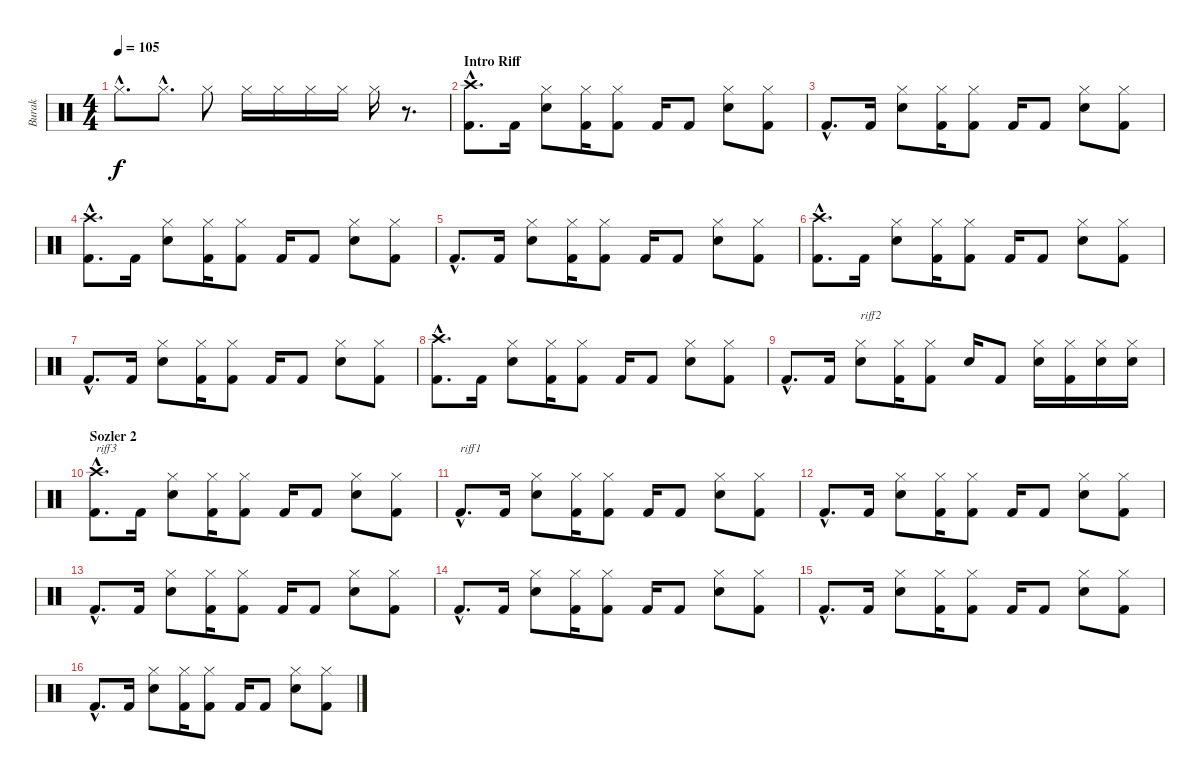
\track ("Burak" "Burak") {instrument percussion}
\staff {score}
\articulation defaults
\ts (4 4)
\tempo 105
\clef neutral
\ks c "Hi-Hat (closed)"{hac}.8{d dy f volume 6} "Hi-Hat (closed)"{hac}.8{d volume 10} "Hi-Hat (closed)".8 "Hi-Hat (closed)".16{volume 12} "Hi-Hat (closed)".16 "Hi-Hat (closed)".16{volume 13} "Hi-Hat (closed)".16 "Hi-Hat (closed)".16{volume 16}
r.8{d} |
\section ("" "Intro Riff")
("Kick (hit) 2"{hac} "Crash high (hit)"{hac}).8{d} "Kick (hit) 2".16 ("Electric Snare (hit)" "Hi-Hat (closed)").8 ("Kick (hit) 2" "Hi-Hat (closed)").16 ("Kick (hit) 2" "Hi-Hat (closed)").8 "Kick (hit) 2".16 "Kick (hit) 2".8 ("Electric Snare (hit)" "Hi-Hat (closed)").8 ("Kick (hit) 2" "Hi-Hat (closed)").8 |
"Kick (hit) 2"{hac}.8{d} "Kick (hit) 2".16 ("Electric Snare (hit)" "Hi-Hat (closed)").8 ("Kick (hit) 2" "Hi-Hat (closed)").16 ("Kick (hit) 2" "Hi-Hat (closed)").8 "Kick (hit) 2".16 "Kick (hit) 2".8 ("Electric Snare (hit)" "Hi-Hat (closed)").8 ("Kick (hit) 2" "Hi-Hat (closed)").8 |
("Kick (hit) 2"{hac} "Crash high (hit)"{hac}).8{d} "Kick (hit) 2".16 ("Electric Snare (hit)" "Hi-Hat (closed)").8 ("Kick (hit) 2" "Hi-Hat (closed)").16 ("Kick (hit) 2" "Hi-Hat (closed)").8 "Kick (hit) 2".16 "Kick (hit) 2".8 ("Electric Snare (hit)" "Hi-Hat (closed)").8 ("Kick (hit) 2" "Hi-Hat (closed)").8 |
"Kick (hit) 2"{hac}.8{d} "Kick (hit) 2".16 ("Electric Snare (hit)" "Hi-Hat (closed)").8 ("Kick (hit) 2" "Hi-Hat (closed)").16 ("Kick (hit) 2" "Hi-Hat (closed)").8 "Kick (hit) 2".16 "Kick (hit) 2".8 ("Electric Snare (hit)" "Hi-Hat (closed)").8 ("Kick (hit) 2" "Hi-Hat (closed)").8 |
("Kick (hit) 2"{hac} "Crash high (hit)"{hac}).8{d} "Kick (hit) 2".16 ("Electric Snare (hit)" "Hi-Hat (closed)").8 ("Kick (hit) 2" "Hi-Hat (closed)").16 ("Kick (hit) 2" "Hi-Hat (closed)").8 "Kick (hit) 2".16 "Kick (hit) 2".8 ("Electric Snare (hit)" "Hi-Hat (closed)").8 ("Kick (hit) 2" "Hi-Hat (closed)").8 |
"Kick (hit) 2"{hac}.8{d} "Kick (hit) 2".16 ("Electric Snare (hit)" "Hi-Hat (closed)").8 ("Kick (hit) 2" "Hi-Hat (closed)").16 ("Kick (hit) 2" "Hi-Hat (closed)").8 "Kick (hit) 2".16 "Kick (hit) 2".8 ("Electric Snare (hit)" "Hi-Hat (closed)").8 ("Kick (hit) 2" "Hi-Hat (closed)").8 |
("Kick (hit) 2"{hac} "Crash high (hit)"{hac}).8{d} "Kick (hit) 2".16 ("Electric Snare (hit)" "Hi-Hat (closed)").8 ("Kick (hit) 2" "Hi-Hat (closed)").16 ("Kick (hit) 2" "Hi-Hat (closed)").8 "Kick (hit) 2".16 "Kick (hit) 2".8 ("Electric Snare (hit)" "Hi-Hat (closed)").8 ("Kick (hit) 2" "Hi-Hat (closed)").8 |
"Kick (hit) 2"{hac}.8{d} "Kick (hit) 2".16 ("Electric Snare (hit)" "Hi-Hat (closed)").8{txt "riff2"} ("Kick (hit) 2" "Hi-Hat (closed)").16 ("Kick (hit) 2" "Hi-Hat (closed)").8 "Electric Snare (hit)".16 "Kick (hit) 2".8 ("Electric Snare (hit)" "Hi-Hat (closed)").16 ("Kick (hit) 2" "Hi-Hat (closed)").16 ("Electric Snare (hit)" "Hi-Hat (closed)").16 ("Electric Snare (hit)" "Hi-Hat (closed)").16 |
\section ("" "Sozler 2")
("Kick (hit) 2"{hac} "Crash high (hit)"{hac}).8{d txt "riff3"} "Kick (hit) 2".16 ("Electric Snare (hit)" "Hi-Hat (closed)").8 ("Kick (hit) 2" "Hi-Hat (closed)").16 ("Kick (hit) 2" "Hi-Hat (closed)").8 "Kick (hit) 2".16 "Kick (hit) 2".8 ("Electric Snare (hit)" "Hi-Hat (closed)").8 ("Kick (hit) 2" "Hi-Hat (closed)").8 |
"Kick (hit) 2"{hac}.8{d txt "riff1"} "Kick (hit) 2".16 ("Electric Snare (hit)" "Hi-Hat (closed)").8 ("Kick (hit) 2" "Hi-Hat (closed)").16 ("Kick (hit) 2" "Hi-Hat (closed)").8 "Kick (hit) 2".16 "Kick (hit) 2".8 ("Electric Snare (hit)" "Hi-Hat (closed)").8 ("Kick (hit) 2" "Hi-Hat (closed)").8 |
"Kick (hit) 2"{hac}.8{d} "Kick (hit) 2".16 ("Electric Snare (hit)" "Hi-Hat (closed)").8 ("Kick (hit) 2" "Hi-Hat (closed)").16 ("Kick (hit) 2" "Hi-Hat (closed)").8 "Kick (hit) 2".16 "Kick (hit) 2".8 ("Electric Snare (hit)" "Hi-Hat (closed)").8 ("Kick (hit) 2" "Hi-Hat (closed)").8 |
"Kick (hit) 2"{hac}.8{d} "Kick (hit) 2".16 ("Electric Snare (hit)" "Hi-Hat (closed)").8 ("Kick (hit) 2" "Hi-Hat (closed)").16 ("Kick (hit) 2" "Hi-Hat (closed)").8 "Kick (hit) 2".16 "Kick (hit) 2".8 ("Electric Snare (hit)" "Hi-Hat (closed)").8 ("Kick (hit) 2" "Hi-Hat (closed)").8 |
"Kick (hit) 2"{hac}.8{d} "Kick (hit) 2".16 ("Electric Snare (hit)" "Hi-Hat (closed)").8 ("Kick (hit) 2" "Hi-Hat (closed)").16 ("Kick (hit) 2" "Hi-Hat (closed)").8 "Kick (hit) 2".16 "Kick (hit) 2".8 ("Electric Snare (hit)" "Hi-Hat (closed)").8 ("Kick (hit) 2" "Hi-Hat (closed)").8 |
"Kick (hit) 2"{hac}.8{d} "Kick (hit) 2".16 ("Electric Snare (hit)" "Hi-Hat (closed)").8 ("Kick (hit) 2" "Hi-Hat (closed)").16 ("Kick (hit) 2" "Hi-Hat (closed)").8 "Kick (hit) 2".16 "Kick (hit) 2".8 ("Electric Snare (hit)" "Hi-Hat (closed)").8 ("Kick (hit) 2" "Hi-Hat (closed)").8 |
"Kick (hit) 2"{hac}.8{d} "Kick (hit) 2".16 ("Electric Snare (hit)" "Hi-Hat (closed)").8 ("Kick (hit) 2" "Hi-Hat (closed)").16 ("Kick (hit) 2" "Hi-Hat (closed)").8 "Kick (hit) 2".16 "Kick (hit) 2".8 ("Electric Snare (hit)" "Hi-Hat (closed)").8 ("Kick (hit) 2" "Hi-Hat (closed)").8
